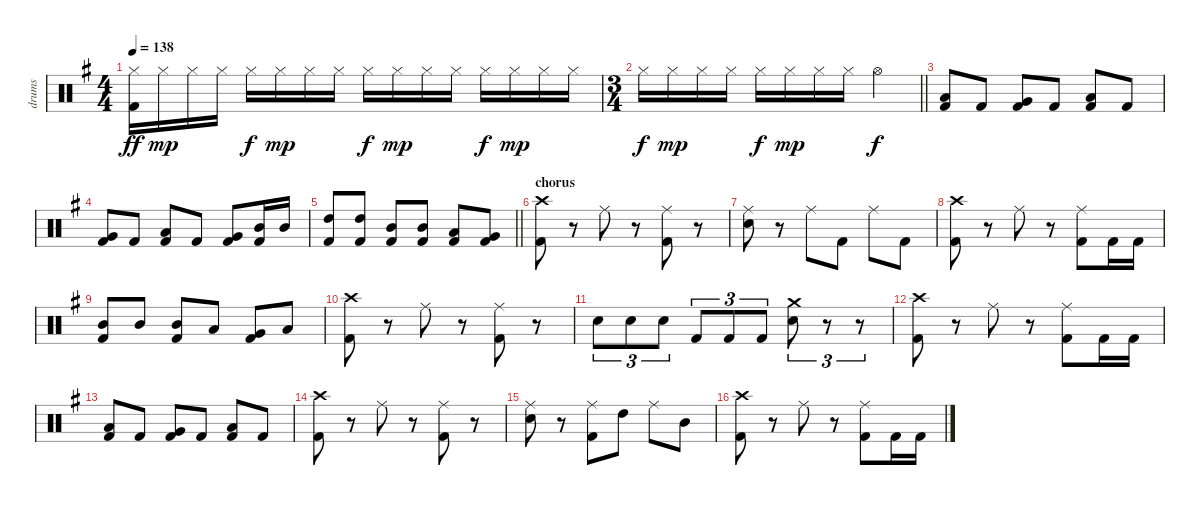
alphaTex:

\track ("drums" "drums") {instrument percussion}
\staff {score}
\articulation defaults
\ts (4 4)
\tempo 138
\clef neutral
\ks eminor
("Hi-Hat (closed)" "Kick (hit) 2").16{dy ff} "Hi-Hat (closed)".16{dy mp} "Hi-Hat (closed)".16 "Hi-Hat (closed)".16 "Hi-Hat (closed)".16{dy f} "Hi-Hat (closed)".16{dy mp} "Hi-Hat (closed)".16 "Hi-Hat (closed)".16 "Hi-Hat (closed)".16{dy f} "Hi-Hat (closed)".16{dy mp} "Hi-Hat (closed)".16 "Hi-Hat (closed)".16 "Hi-Hat (closed)".16{dy f} "Hi-Hat (closed)".16{dy mp} "Hi-Hat (closed)".16 "Hi-Hat (closed)".16 |
\ts (3 4)
\barLineRight lightlight "Hi-Hat (closed)".16{dy f} "Hi-Hat (closed)".16{dy mp} "Hi-Hat (closed)".16 "Hi-Hat (closed)".16 "Hi-Hat (closed)".16{dy f} "Hi-Hat (closed)".16{dy mp} "Hi-Hat (closed)".16 "Hi-Hat (closed)".16 "Hi-Hat (open)".4{dy f}
|
("Low Tom (hit)" "Kick (hit) 2").8 "Kick (hit) 2".8 ("Very Low Tom (hit)" "Kick (hit) 2").8 "Kick (hit) 2".8 ("Low Tom (hit)" "Kick (hit) 2").8 "Kick (hit) 2".8 |
("Very Low Tom (hit)" "Kick (hit) 2").8 "Kick (hit) 2".8 ("Low Tom (hit)" "Kick (hit) 2").8 "Kick (hit) 2".8 ("Very Low Tom (hit)" "Kick (hit) 2").8 ("Mid Tom (hit)" "Kick (hit) 2").16 "Mid Tom (hit)".16 |
\barLineRight lightlight
("High Tom (hit)" "Kick (hit) 2").8 ("High Tom (hit)" "Kick (hit) 2").8 ("Mid Tom (hit)" "Kick (hit) 2").8 ("Mid Tom (hit)" "Kick (hit) 2").8 ("Low Tom (hit)" "Kick (hit) 2").8 ("Very Low Tom (hit)" "Kick (hit) 2").8 |
\section ("" "chorus")
("Crash high (hit)" "Kick (hit) 2").8 r.8 "Ride (middle)".8 r.8 ("Ride (middle)" "Kick (hit) 2").8 r.8 |
("Ride (middle)" "Snare (hit) 2").8 r.8 "Ride (middle)".8 "Kick (hit) 2".8 "Ride (middle)".8 "Kick (hit) 2".8 |
("Crash high (hit)" "Kick (hit) 2").8 r.8 "Ride (middle)".8 r.8 ("Ride (middle)" "Kick (hit) 2").8 "Kick (hit) 2".16 "Kick (hit) 2".16 |
("Mid Tom (hit)" "Kick (hit) 2").8 "Mid Tom (hit)".8 ("Mid Tom (hit)" "Kick (hit) 2").8 "Low Tom (hit)".8 ("Very Low Tom (hit)" "Kick (hit) 2").8 "Low Floor Tom (hit)".8 |
("Crash high (hit)" "Kick (hit) 2").8 r.8 "Ride (middle)".8 r.8 ("Ride (middle)" "Kick (hit) 2").8 r.8 |
"Snare (hit) 2".8{tu (3 2)} "Snare (hit) 2".8{tu (3 2)} "Snare (hit) 2".8{tu (3 2)} "Kick (hit) 2".8{tu (3 2)} "Kick (hit) 2".8{tu (3 2)} "Kick (hit) 2".8{tu (3 2)} ("Crash medium (hit)" "Snare (hit) 2").8{tu (3 2)} r.8{tu (3 2)} r.8{tu (3 2)} |
("Crash high (hit)" "Kick (hit) 2").8 r.8 "Ride (middle)".8 r.8 ("Ride (middle)" "Kick (hit) 2").8 "Kick (hit) 2".16 "Kick (hit) 2".16 |
("Low Tom (hit)" "Kick (hit) 2").8 "Kick (hit) 2".8 ("Very Low Tom (hit)" "Kick (hit) 2").8 "Kick (hit) 2".8 ("Low Tom (hit)" "Kick (hit) 2").8 "Kick (hit) 2".8 |
("Crash high (hit)" "Kick (hit) 2").8 r.8 "Ride (middle)".8 r.8 ("Ride (middle)" "Kick (hit) 2").8 r.8 |
("Ride (middle)" "Snare (hit) 2").8 r.8 ("Ride (middle)" "Kick (hit) 2").8 "High Tom (hit)".8 "Ride (middle)".8 "Mid Tom (hit)".8 |
("Crash high (hit)" "Kick (hit) 2").8 r.8 "Ride (middle)".8 r.8 ("Ride (middle)" "Kick (hit) 2").8 "Kick (hit) 2".16 "Kick (hit) 2".16
